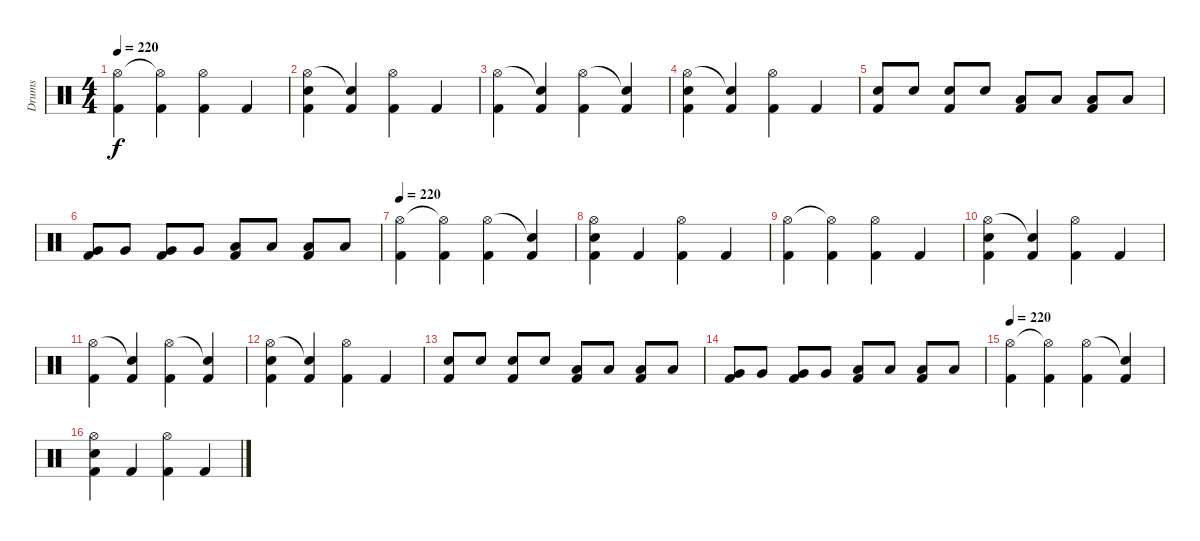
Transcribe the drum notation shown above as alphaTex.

\track ("Drums" "Drums") {instrument percussion}
\staff {score}
\articulation defaults
\ts (4 4)
\tempo 220
\clef neutral
\ks c
("Hi-Hat (open)" "Kick (hit) 2").4{dy f} ("Hi-Hat (open)"{t} "Kick (hit) 2").4 ("Hi-Hat (open)" "Kick (hit) 2").4 "Kick (hit) 2".4 |
("Hi-Hat (open)" "Snare (hit) 2" "Kick (hit) 2").4 ("Snare (hit)"{t} "Kick (hit) 2").4 ("Hi-Hat (open)" "Kick (hit) 2").4 "Kick (hit) 2".4 |
("Hi-Hat (open)" "Kick (hit) 2").4 ("Snare (hit)"{t} "Kick (hit) 2").4 ("Hi-Hat (open)" "Kick (hit) 2").4 ("Snare (hit)"{t} "Kick (hit) 2").4 |
("Hi-Hat (open)" "Snare (hit) 2" "Kick (hit) 2").4 ("Snare (hit)"{t} "Kick (hit) 2").4 ("Hi-Hat (open)" "Kick (hit) 2").4 "Kick (hit) 2".4 |
("Snare (hit) 2" "Kick (hit) 2").8 "Snare (hit) 2".8 ("Snare (hit) 2" "Kick (hit) 2").8 "Snare (hit) 2".8 ("Low Tom (hit)" "Kick (hit) 2").8 "Low Tom (hit)".8 ("Low Tom (hit)" "Kick (hit) 2").8 "Low Tom (hit)".8 |
("Very Low Tom (hit)" "Kick (hit) 2").8 "Very Low Tom (hit)".8 ("Very Low Tom (hit)" "Kick (hit) 2").8 "Very Low Tom (hit)".8 ("Low Floor Tom (hit)" "Kick (hit) 2").8 "Low Floor Tom (hit)".8 ("Low Floor Tom (hit)" "Kick (hit) 2").8 "Low Floor Tom (hit)".8 |
\tempo 220
("Hi-Hat (open)" "Kick (hit) 2").4 ("Hi-Hat (open)"{t} "Kick (hit) 2").4 ("Hi-Hat (open)" "Kick (hit) 2").4 ("Snare (hit)"{t} "Kick (hit) 2").4 |
("Hi-Hat (open)" "Snare (hit) 2" "Kick (hit) 2").4 "Kick (hit) 2".4 ("Hi-Hat (open)" "Kick (hit) 2").4 "Kick (hit) 2".4 |
("Hi-Hat (open)" "Kick (hit) 2").4 ("Hi-Hat (open)"{t} "Kick (hit) 2").4 ("Hi-Hat (open)" "Kick (hit) 2").4 "Kick (hit) 2".4 |
("Hi-Hat (open)" "Snare (hit) 2" "Kick (hit) 2").4 ("Snare (hit)"{t} "Kick (hit) 2").4 ("Hi-Hat (open)" "Kick (hit) 2").4 "Kick (hit) 2".4 |
("Hi-Hat (open)" "Kick (hit) 2").4 ("Snare (hit)"{t} "Kick (hit) 2").4 ("Hi-Hat (open)" "Kick (hit) 2").4 ("Snare (hit)"{t} "Kick (hit) 2").4 |
("Hi-Hat (open)" "Snare (hit) 2" "Kick (hit) 2").4 ("Snare (hit)"{t} "Kick (hit) 2").4 ("Hi-Hat (open)" "Kick (hit) 2").4 "Kick (hit) 2".4 |
("Snare (hit) 2" "Kick (hit) 2").8 "Snare (hit) 2".8 ("Snare (hit) 2" "Kick (hit) 2").8 "Snare (hit) 2".8 ("Low Tom (hit)" "Kick (hit) 2").8 "Low Tom (hit)".8 ("Low Tom (hit)" "Kick (hit) 2").8 "Low Tom (hit)".8 |
("Very Low Tom (hit)" "Kick (hit) 2").8 "Very Low Tom (hit)".8 ("Very Low Tom (hit)" "Kick (hit) 2").8 "Very Low Tom (hit)".8 ("Low Floor Tom (hit)" "Kick (hit) 2").8 "Low Floor Tom (hit)".8 ("Low Floor Tom (hit)" "Kick (hit) 2").8 "Low Floor Tom (hit)".8 |
\tempo 220
("Hi-Hat (open)" "Kick (hit) 2").4 ("Hi-Hat (open)"{t} "Kick (hit) 2").4 ("Hi-Hat (open)" "Kick (hit) 2").4 ("Snare (hit)"{t} "Kick (hit) 2").4 |
("Hi-Hat (open)" "Snare (hit) 2" "Kick (hit) 2").4 "Kick (hit) 2".4 ("Hi-Hat (open)" "Kick (hit) 2").4 "Kick (hit) 2".4
